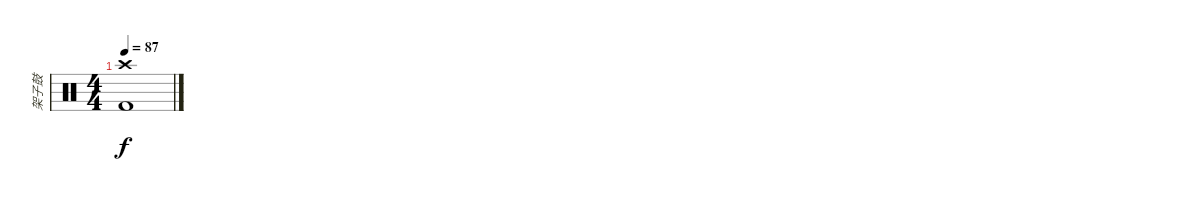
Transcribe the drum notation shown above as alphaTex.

\track ("架子鼓" "架子鼓") {instrument percussion}
\staff {score}
\articulation defaults
\ts (4 4)
\section ("" "")
\tempo 87
\clef neutral
\ks c
("Crash high (hit)" "Kick (hit) 2").1{dy f}
